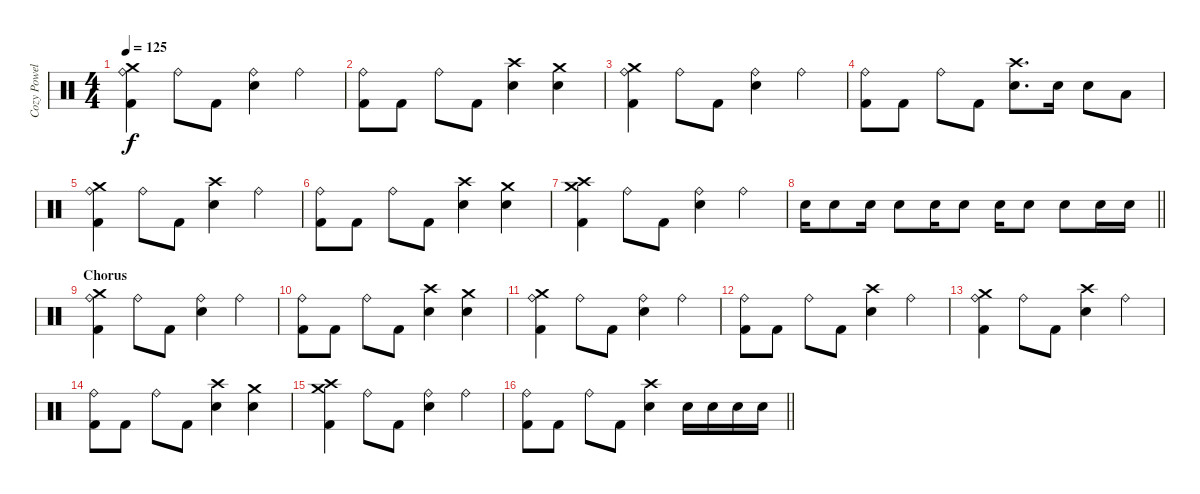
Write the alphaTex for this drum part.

\track ("Cozy Powell " "Cozy Powel") {instrument percussion}
\staff {score}
\articulation defaults
\ts (4 4)
\tempo 125
\clef neutral
\ks c
("Crash medium (hit)" "Ride (bell)" "Kick (hit) 2").4{dy f} "Ride (bell)".8 "Kick (hit) 2".8 ("Ride (bell)" "Snare (hit) 2").4 "Ride (bell)".4 |
("Ride (bell)" "Kick (hit) 2").8 "Kick (hit) 2".8 "Ride (bell)".8 "Kick (hit) 2".8 ("Crash high (hit)" "Snare (hit) 2").4 ("Crash medium (hit)" "Snare (hit) 2").4 |
("Crash medium (hit)" "Ride (bell)" "Kick (hit) 2").4 "Ride (bell)".8 "Kick (hit) 2".8 ("Ride (bell)" "Snare (hit) 2").4 "Ride (bell)".4 |
("Ride (bell)" "Kick (hit) 2").8 "Kick (hit) 2".8 "Ride (bell)".8 "Kick (hit) 2".8 ("Crash high (hit)" "Snare (hit) 2").8{d} "Snare (hit) 2".16 "Snare (hit) 2".8 "Low Tom (hit)".8 |
("Crash medium (hit)" "Ride (bell)" "Kick (hit) 2").4 "Ride (bell)".8 "Kick (hit) 2".8 ("Crash high (hit)" "Snare (hit) 2").4 "Ride (bell)".4 |
("Ride (bell)" "Kick (hit) 2").8 "Kick (hit) 2".8 "Ride (bell)".8 "Kick (hit) 2".8 ("Crash high (hit)" "Snare (hit) 2").4 ("Crash medium (hit)" "Snare (hit) 2").4 |
("Crash medium (hit)" "Crash high (hit)" "Kick (hit) 2").4 "Ride (bell)".8 "Kick (hit) 2".8 ("Ride (bell)" "Snare (hit) 2").4 "Ride (bell)".4 |
\barLineRight lightlight "Snare (hit) 2".16 "Snare (hit) 2".8 "Snare (hit) 2".16 "Snare (hit) 2".8 "Snare (hit) 2".16 "Snare (hit) 2".8 "Snare (hit) 2".16 "Snare (hit) 2".8 "Snare (hit) 2".8 "Snare (hit) 2".16 "Snare (hit) 2".16
|
\section ("" "Chorus")
("Crash medium (hit)" "Ride (bell)" "Kick (hit) 2").4 "Ride (bell)".8 "Kick (hit) 2".8 ("Ride (bell)" "Snare (hit) 2").4 "Ride (bell)".4 |
("Ride (bell)" "Kick (hit) 2").8 "Kick (hit) 2".8 "Ride (bell)".8 "Kick (hit) 2".8 ("Crash high (hit)" "Snare (hit) 2").4 ("Crash medium (hit)" "Snare (hit) 2").4 |
("Crash medium (hit)" "Ride (bell)" "Kick (hit) 2").4 "Ride (bell)".8 "Kick (hit) 2".8 ("Ride (bell)" "Snare (hit) 2").4 "Ride (bell)".4 |
("Ride (bell)" "Kick (hit) 2").8 "Kick (hit) 2".8 "Ride (bell)".8 "Kick (hit) 2".8 ("Crash high (hit)" "Snare (hit) 2").4 "Ride (bell)".4 |
("Crash medium (hit)" "Ride (bell)" "Kick (hit) 2").4 "Ride (bell)".8 "Kick (hit) 2".8 ("Crash high (hit)" "Snare (hit) 2").4 "Ride (bell)".4 |
("Ride (bell)" "Kick (hit) 2").8 "Kick (hit) 2".8 "Ride (bell)".8 "Kick (hit) 2".8 ("Crash high (hit)" "Snare (hit) 2").4 ("Crash medium (hit)" "Snare (hit) 2").4 |
("Crash medium (hit)" "Crash high (hit)" "Kick (hit) 2").4 "Ride (bell)".8 "Kick (hit) 2".8 ("Ride (bell)" "Snare (hit) 2").4 "Ride (bell)".4 |
\barLineRight lightlight
("Ride (bell)" "Kick (hit) 2").8 "Kick (hit) 2".8 "Ride (bell)".8 "Kick (hit) 2".8 ("Crash high (hit)" "Snare (hit) 2").4 "Snare (hit) 2".16 "Snare (hit) 2".16 "Snare (hit) 2".16 "Snare (hit) 2".16
